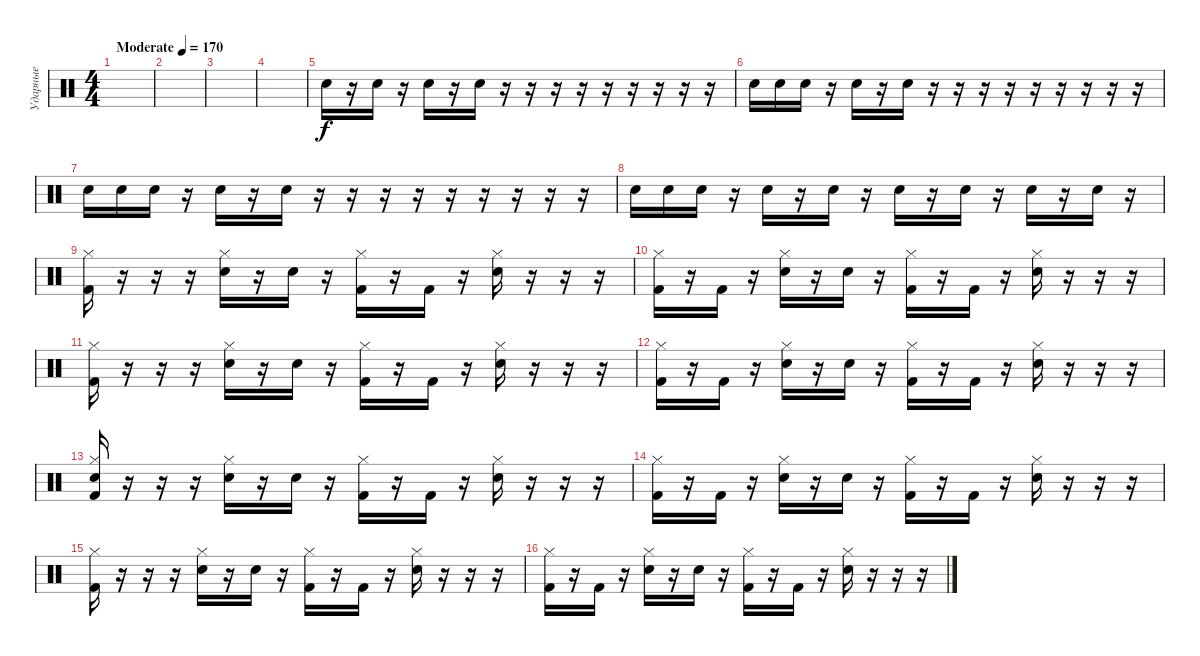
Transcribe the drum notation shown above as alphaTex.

\track ("Ударные" "Ударные") {instrument percussion}
\staff {score}
\articulation defaults
\ts (4 4)
\tempo (170 "Moderate")
\clef neutral
\ks c
|
|
|
|
"Snare (hit) 2".16 r.16 "Snare (hit) 2".16 r.16 "Snare (hit) 2".16 r.16 "Snare (hit) 2".16 r.16 r.16 r.16 r.16 r.16 r.16 r.16 r.16 r.16 |
"Snare (hit) 2".16 "Snare (hit) 2".16 "Snare (hit) 2".16 r.16 "Snare (hit) 2".16 r.16 "Snare (hit) 2".16 r.16 r.16 r.16 r.16 r.16 r.16 r.16 r.16 r.16 |
"Snare (hit) 2".16 "Snare (hit) 2".16 "Snare (hit) 2".16 r.16 "Snare (hit) 2".16 r.16 "Snare (hit) 2".16 r.16 r.16 r.16 r.16 r.16 r.16 r.16 r.16 r.16 |
"Snare (hit) 2".16 "Snare (hit) 2".16 "Snare (hit) 2".16 r.16 "Snare (hit) 2".16 r.16 "Snare (hit) 2".16 r.16 "Snare (hit) 2".16 r.16 "Snare (hit) 2".16 r.16 "Snare (hit) 2".16 r.16 "Snare (hit) 2".16 r.16 |
("Hi-Hat (closed)" "Kick (hit) 2").16 r.16 r.16 r.16 ("Hi-Hat (closed)" "Snare (hit) 2").16 r.16 "Snare (hit) 2".16 r.16 ("Hi-Hat (closed)" "Kick (hit) 2").16 r.16 "Kick (hit) 2".16 r.16 ("Hi-Hat (closed)" "Snare (hit) 2").16 r.16 r.16 r.16 |
("Hi-Hat (closed)" "Kick (hit) 2").16 r.16 "Kick (hit) 2".16 r.16 ("Hi-Hat (closed)" "Snare (hit) 2").16 r.16 "Snare (hit) 2".16 r.16 ("Hi-Hat (closed)" "Kick (hit) 2").16 r.16 "Kick (hit) 2".16 r.16 ("Hi-Hat (closed)" "Snare (hit) 2").16 r.16 r.16 r.16 |
("Hi-Hat (closed)" "Kick (hit) 2").16 r.16 r.16 r.16 ("Hi-Hat (closed)" "Snare (hit) 2").16 r.16 "Snare (hit) 2".16 r.16 ("Hi-Hat (closed)" "Kick (hit) 2").16 r.16 "Kick (hit) 2".16 r.16 ("Hi-Hat (closed)" "Snare (hit) 2").16 r.16 r.16 r.16 |
("Hi-Hat (closed)" "Kick (hit) 2").16 r.16 "Kick (hit) 2".16 r.16 ("Hi-Hat (closed)" "Snare (hit) 2").16 r.16 "Snare (hit) 2".16 r.16 ("Hi-Hat (closed)" "Kick (hit) 2").16 r.16 "Kick (hit) 2".16 r.16 ("Hi-Hat (closed)" "Snare (hit) 2").16 r.16 r.16 r.16 |
("Hi-Hat (closed)" "Snare (hit) 2" "Kick (hit) 2").16 r.16 r.16 r.16 ("Hi-Hat (closed)" "Snare (hit) 2").16 r.16 "Snare (hit) 2".16 r.16 ("Hi-Hat (closed)" "Kick (hit) 2").16 r.16 "Kick (hit) 2".16 r.16 ("Hi-Hat (closed)" "Snare (hit) 2").16 r.16 r.16 r.16 |
("Hi-Hat (closed)" "Kick (hit) 2").16 r.16 "Kick (hit) 2".16 r.16 ("Hi-Hat (closed)" "Snare (hit) 2").16 r.16 "Snare (hit) 2".16 r.16 ("Hi-Hat (closed)" "Kick (hit) 2").16 r.16 "Kick (hit) 2".16 r.16 ("Hi-Hat (closed)" "Snare (hit) 2").16 r.16 r.16 r.16 |
("Hi-Hat (closed)" "Kick (hit) 2").16 r.16 r.16 r.16 ("Hi-Hat (closed)" "Snare (hit) 2").16 r.16 "Snare (hit) 2".16 r.16 ("Hi-Hat (closed)" "Kick (hit) 2").16 r.16 "Kick (hit) 2".16 r.16 ("Hi-Hat (closed)" "Snare (hit) 2").16 r.16 r.16 r.16 |
("Hi-Hat (closed)" "Kick (hit) 2").16 r.16 "Kick (hit) 2".16 r.16 ("Hi-Hat (closed)" "Snare (hit) 2").16 r.16 "Snare (hit) 2".16 r.16 ("Hi-Hat (closed)" "Kick (hit) 2").16 r.16 "Kick (hit) 2".16 r.16 ("Hi-Hat (closed)" "Snare (hit) 2").16 r.16 r.16 r.16
